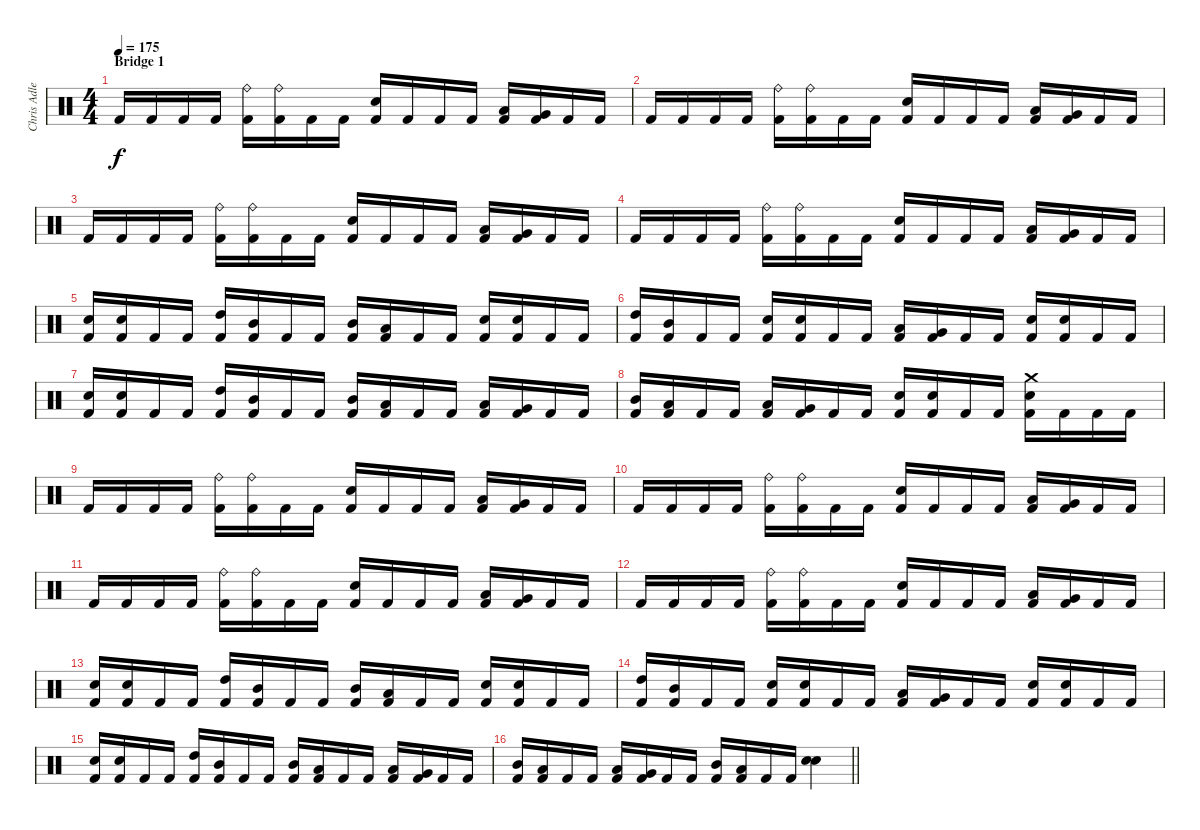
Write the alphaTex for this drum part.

\track ("Chris Adler" "Chris Adle") {instrument percussion}
\staff {score}
\articulation defaults
\ts (4 4)
\section ("" "Bridge 1")
\tempo 175
\clef neutral
\ks c "Kick (hit) 2".16{dy f} "Kick (hit) 2".16 "Kick (hit) 2".16 "Kick (hit) 2".16
("Ride (bell)" "Kick (hit) 2").16 ("Ride (bell)" "Kick (hit) 2").16 "Kick (hit) 2".16 "Kick (hit) 2".16 ("Electric Snare (hit)" "Kick (hit) 2").16 "Kick (hit) 2".16 "Kick (hit) 2".16 "Kick (hit) 2".16 ("Low Tom (hit)" "Kick (hit) 2").16 ("Very Low Tom (hit)" "Kick (hit) 2").16 "Kick (hit) 2".16 "Kick (hit) 2".16 |
"Kick (hit) 2".16 "Kick (hit) 2".16 "Kick (hit) 2".16 "Kick (hit) 2".16 ("Ride (bell)" "Kick (hit) 2").16 ("Ride (bell)" "Kick (hit) 2").16 "Kick (hit) 2".16 "Kick (hit) 2".16 ("Electric Snare (hit)" "Kick (hit) 2").16 "Kick (hit) 2".16 "Kick (hit) 2".16 "Kick (hit) 2".16 ("Low Tom (hit)" "Kick (hit) 2").16 ("Very Low Tom (hit)" "Kick (hit) 2").16 "Kick (hit) 2".16 "Kick (hit) 2".16 |
"Kick (hit) 2".16 "Kick (hit) 2".16 "Kick (hit) 2".16 "Kick (hit) 2".16 ("Ride (bell)" "Kick (hit) 2").16 ("Ride (bell)" "Kick (hit) 2").16 "Kick (hit) 2".16 "Kick (hit) 2".16 ("Electric Snare (hit)" "Kick (hit) 2").16 "Kick (hit) 2".16 "Kick (hit) 2".16 "Kick (hit) 2".16 ("Low Tom (hit)" "Kick (hit) 2").16 ("Very Low Tom (hit)" "Kick (hit) 2").16 "Kick (hit) 2".16 "Kick (hit) 2".16 |
"Kick (hit) 2".16 "Kick (hit) 2".16 "Kick (hit) 2".16 "Kick (hit) 2".16 ("Ride (bell)" "Kick (hit) 2").16 ("Ride (bell)" "Kick (hit) 2").16 "Kick (hit) 2".16 "Kick (hit) 2".16 ("Electric Snare (hit)" "Kick (hit) 2").16 "Kick (hit) 2".16 "Kick (hit) 2".16 "Kick (hit) 2".16 ("Low Tom (hit)" "Kick (hit) 2").16 ("Very Low Tom (hit)" "Kick (hit) 2").16 "Kick (hit) 2".16 "Kick (hit) 2".16 |
("Electric Snare (hit)" "Kick (hit) 2").16 ("Electric Snare (hit)" "Kick (hit) 2").16 "Kick (hit) 2".16 "Kick (hit) 2".16 ("High Tom (hit)" "Kick (hit) 2").16 ("Mid Tom (hit)" "Kick (hit) 2").16 "Kick (hit) 2".16 "Kick (hit) 2".16 ("Mid Tom (hit)" "Kick (hit) 2").16 ("Low Tom (hit)" "Kick (hit) 2").16 "Kick (hit) 2".16 "Kick (hit) 2".16 ("Electric Snare (hit)" "Kick (hit) 2").16 ("Electric Snare (hit)" "Kick (hit) 2").16 "Kick (hit) 2".16 "Kick (hit) 2".16 |
("High Tom (hit)" "Kick (hit) 2").16 ("Mid Tom (hit)" "Kick (hit) 2").16 "Kick (hit) 2".16 "Kick (hit) 2".16 ("Electric Snare (hit)" "Kick (hit) 2").16 ("Electric Snare (hit)" "Kick (hit) 2").16 "Kick (hit) 2".16 "Kick (hit) 2".16 ("Low Tom (hit)" "Kick (hit) 2").16 ("Very Low Tom (hit)" "Kick (hit) 2").16 "Kick (hit) 2".16 "Kick (hit) 2".16 ("Electric Snare (hit)" "Kick (hit) 2").16 ("Electric Snare (hit)" "Kick (hit) 2").16 "Kick (hit) 2".16 "Kick (hit) 2".16 |
("Electric Snare (hit)" "Kick (hit) 2").16 ("Electric Snare (hit)" "Kick (hit) 2").16 "Kick (hit) 2".16 "Kick (hit) 2".16 ("High Tom (hit)" "Kick (hit) 2").16 ("Mid Tom (hit)" "Kick (hit) 2").16 "Kick (hit) 2".16 "Kick (hit) 2".16 ("Mid Tom (hit)" "Kick (hit) 2").16 ("Low Tom (hit)" "Kick (hit) 2").16 "Kick (hit) 2".16 "Kick (hit) 2".16 ("Low Tom (hit)" "Kick (hit) 2").16 ("Very Low Tom (hit)" "Kick (hit) 2").16 "Kick (hit) 2".16 "Kick (hit) 2".16 |
("Mid Tom (hit)" "Kick (hit) 2").16 ("Low Tom (hit)" "Kick (hit) 2").16 "Kick (hit) 2".16 "Kick (hit) 2".16 ("Low Tom (hit)" "Kick (hit) 2").16 ("Very Low Tom (hit)" "Kick (hit) 2").16 "Kick (hit) 2".16 "Kick (hit) 2".16 ("Electric Snare (hit)" "Kick (hit) 2").16 ("Electric Snare (hit)" "Kick (hit) 2").16 "Kick (hit) 2".16 "Kick (hit) 2".16 ("Crash medium (hit)" "Electric Snare (hit)" "Kick (hit) 2").16 "Kick (hit) 2".16 "Kick (hit) 2".16 "Kick (hit) 2".16 |
"Kick (hit) 2".16 "Kick (hit) 2".16 "Kick (hit) 2".16 "Kick (hit) 2".16 ("Ride (bell)" "Kick (hit) 2").16 ("Ride (bell)" "Kick (hit) 2").16 "Kick (hit) 2".16 "Kick (hit) 2".16 ("Electric Snare (hit)" "Kick (hit) 2").16 "Kick (hit) 2".16 "Kick (hit) 2".16 "Kick (hit) 2".16 ("Low Tom (hit)" "Kick (hit) 2").16 ("Very Low Tom (hit)" "Kick (hit) 2").16 "Kick (hit) 2".16 "Kick (hit) 2".16 |
"Kick (hit) 2".16 "Kick (hit) 2".16 "Kick (hit) 2".16 "Kick (hit) 2".16 ("Ride (bell)" "Kick (hit) 2").16 ("Ride (bell)" "Kick (hit) 2").16 "Kick (hit) 2".16 "Kick (hit) 2".16 ("Electric Snare (hit)" "Kick (hit) 2").16 "Kick (hit) 2".16 "Kick (hit) 2".16 "Kick (hit) 2".16 ("Low Tom (hit)" "Kick (hit) 2").16 ("Very Low Tom (hit)" "Kick (hit) 2").16 "Kick (hit) 2".16 "Kick (hit) 2".16 |
"Kick (hit) 2".16 "Kick (hit) 2".16 "Kick (hit) 2".16 "Kick (hit) 2".16 ("Ride (bell)" "Kick (hit) 2").16 ("Ride (bell)" "Kick (hit) 2").16 "Kick (hit) 2".16 "Kick (hit) 2".16 ("Electric Snare (hit)" "Kick (hit) 2").16 "Kick (hit) 2".16 "Kick (hit) 2".16 "Kick (hit) 2".16 ("Low Tom (hit)" "Kick (hit) 2").16 ("Very Low Tom (hit)" "Kick (hit) 2").16 "Kick (hit) 2".16 "Kick (hit) 2".16 |
"Kick (hit) 2".16 "Kick (hit) 2".16 "Kick (hit) 2".16 "Kick (hit) 2".16 ("Ride (bell)" "Kick (hit) 2").16 ("Ride (bell)" "Kick (hit) 2").16 "Kick (hit) 2".16 "Kick (hit) 2".16 ("Electric Snare (hit)" "Kick (hit) 2").16 "Kick (hit) 2".16 "Kick (hit) 2".16 "Kick (hit) 2".16 ("Low Tom (hit)" "Kick (hit) 2").16 ("Very Low Tom (hit)" "Kick (hit) 2").16 "Kick (hit) 2".16 "Kick (hit) 2".16 |
("Electric Snare (hit)" "Kick (hit) 2").16 ("Electric Snare (hit)" "Kick (hit) 2").16 "Kick (hit) 2".16 "Kick (hit) 2".16 ("High Tom (hit)" "Kick (hit) 2").16 ("Mid Tom (hit)" "Kick (hit) 2").16 "Kick (hit) 2".16 "Kick (hit) 2".16 ("Mid Tom (hit)" "Kick (hit) 2").16 ("Low Tom (hit)" "Kick (hit) 2").16 "Kick (hit) 2".16 "Kick (hit) 2".16 ("Electric Snare (hit)" "Kick (hit) 2").16 ("Electric Snare (hit)" "Kick (hit) 2").16 "Kick (hit) 2".16 "Kick (hit) 2".16 |
("High Tom (hit)" "Kick (hit) 2").16 ("Mid Tom (hit)" "Kick (hit) 2").16 "Kick (hit) 2".16 "Kick (hit) 2".16 ("Electric Snare (hit)" "Kick (hit) 2").16 ("Electric Snare (hit)" "Kick (hit) 2").16 "Kick (hit) 2".16 "Kick (hit) 2".16 ("Low Tom (hit)" "Kick (hit) 2").16 ("Very Low Tom (hit)" "Kick (hit) 2").16 "Kick (hit) 2".16 "Kick (hit) 2".16 ("Electric Snare (hit)" "Kick (hit) 2").16 ("Electric Snare (hit)" "Kick (hit) 2").16 "Kick (hit) 2".16 "Kick (hit) 2".16 |
("Electric Snare (hit)" "Kick (hit) 2").16 ("Electric Snare (hit)" "Kick (hit) 2").16 "Kick (hit) 2".16 "Kick (hit) 2".16 ("High Tom (hit)" "Kick (hit) 2").16 ("Mid Tom (hit)" "Kick (hit) 2").16 "Kick (hit) 2".16 "Kick (hit) 2".16 ("Mid Tom (hit)" "Kick (hit) 2").16 ("Low Tom (hit)" "Kick (hit) 2").16 "Kick (hit) 2".16 "Kick (hit) 2".16 ("Low Tom (hit)" "Kick (hit) 2").16 ("Very Low Tom (hit)" "Kick (hit) 2").16 "Kick (hit) 2".16 "Kick (hit) 2".16 |
\barLineRight lightlight
("Mid Tom (hit)" "Kick (hit) 2").16 ("Low Tom (hit)" "Kick (hit) 2").16 "Kick (hit) 2".16 "Kick (hit) 2".16 ("Low Tom (hit)" "Kick (hit) 2").16 ("Very Low Tom (hit)" "Kick (hit) 2").16 "Kick (hit) 2".16 "Kick (hit) 2".16 ("Mid Tom (hit)" "Kick (hit) 2").16 ("Low Tom (hit)" "Kick (hit) 2").16 "Kick (hit) 2".16 "Kick (hit) 2".16 ("Electric Snare (hit)" "Electric Snare (hit)").4
